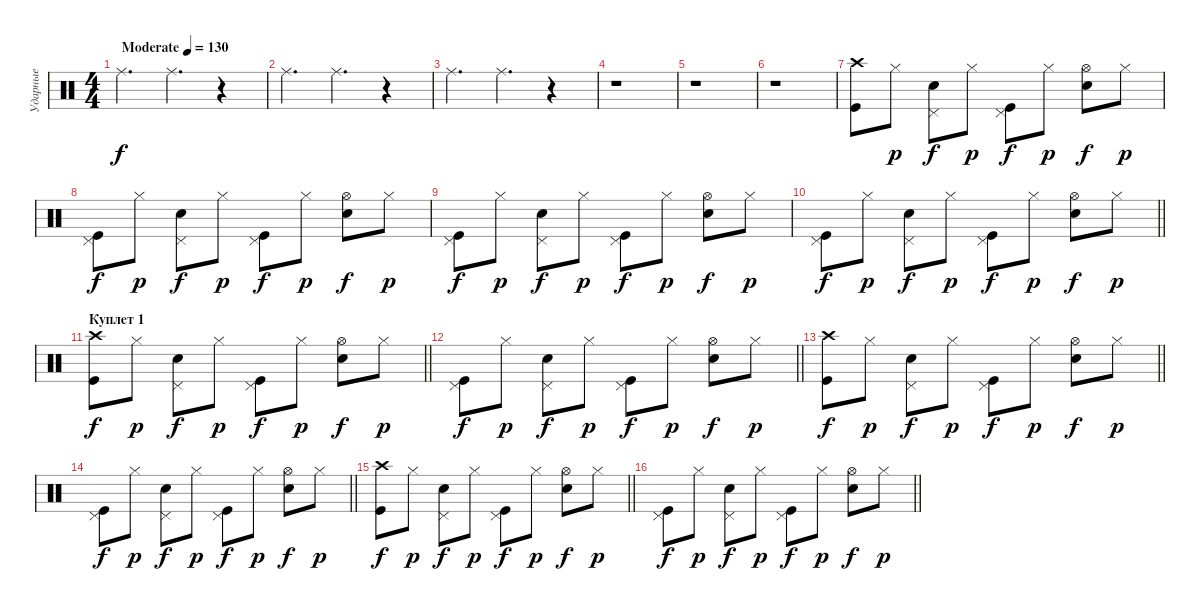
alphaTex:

\track ("Ударные" "Ударные") {instrument percussion}
\staff {score}
\articulation defaults
\ts (4 4)
\tempo (130 "Moderate")
\clef neutral
\ks c "Ride (middle)".4{d dy f} "Ride (middle)".4{d}
r.4 |
"Ride (middle)".4{d} "Ride (middle)".4{d} r.4 |
"Ride (middle)".4{d} "Ride (middle)".4{d} r.4 |
r.1 |
r.1 |
r.1 |
("Crash high (hit)" "Kick (hit)").8 "Hi-Hat (closed)".8{dy p} ("Pedal Hi-Hat (hit)" "Snare (hit) 2").8{dy f} "Hi-Hat (closed)".8{dy p} ("Pedal Hi-Hat (hit)" "Kick (hit)").8{dy f} "Hi-Hat (closed)".8{dy p} ("Hi-Hat (open)" "Snare (hit) 2").8{dy f} "Hi-Hat (closed)".8{dy p} |
("Pedal Hi-Hat (hit)" "Kick (hit)").8{dy f} "Hi-Hat (closed)".8{dy p} ("Pedal Hi-Hat (hit)" "Snare (hit) 2").8{dy f} "Hi-Hat (closed)".8{dy p} ("Pedal Hi-Hat (hit)" "Kick (hit)").8{dy f} "Hi-Hat (closed)".8{dy p} ("Hi-Hat (open)" "Snare (hit) 2").8{dy f} "Hi-Hat (closed)".8{dy p} |
("Pedal Hi-Hat (hit)" "Kick (hit)").8{dy f} "Hi-Hat (closed)".8{dy p} ("Pedal Hi-Hat (hit)" "Snare (hit) 2").8{dy f} "Hi-Hat (closed)".8{dy p} ("Pedal Hi-Hat (hit)" "Kick (hit)").8{dy f} "Hi-Hat (closed)".8{dy p} ("Hi-Hat (open)" "Snare (hit) 2").8{dy f} "Hi-Hat (closed)".8{dy p} |
\barLineRight lightlight
("Pedal Hi-Hat (hit)" "Kick (hit)").8{dy f} "Hi-Hat (closed)".8{dy p} ("Pedal Hi-Hat (hit)" "Snare (hit) 2").8{dy f} "Hi-Hat (closed)".8{dy p} ("Pedal Hi-Hat (hit)" "Kick (hit)").8{dy f} "Hi-Hat (closed)".8{dy p} ("Hi-Hat (open)" "Snare (hit) 2").8{dy f} "Hi-Hat (closed)".8{dy p} |
\section ("" "Куплет 1")
\barLineRight lightlight
("Crash high (hit)" "Kick (hit)").8{dy f} "Hi-Hat (closed)".8{dy p} ("Pedal Hi-Hat (hit)" "Snare (hit) 2").8{dy f} "Hi-Hat (closed)".8{dy p} ("Pedal Hi-Hat (hit)" "Kick (hit)").8{dy f} "Hi-Hat (closed)".8{dy p} ("Hi-Hat (open)" "Snare (hit) 2").8{dy f} "Hi-Hat (closed)".8{dy p} |
\barLineRight lightlight
("Pedal Hi-Hat (hit)" "Kick (hit)").8{dy f} "Hi-Hat (closed)".8{dy p} ("Pedal Hi-Hat (hit)" "Snare (hit) 2").8{dy f} "Hi-Hat (closed)".8{dy p} ("Pedal Hi-Hat (hit)" "Kick (hit)").8{dy f} "Hi-Hat (closed)".8{dy p} ("Hi-Hat (open)" "Snare (hit) 2").8{dy f} "Hi-Hat (closed)".8{dy p} |
\barLineRight lightlight
("Crash high (hit)" "Kick (hit)").8{dy f} "Hi-Hat (closed)".8{dy p} ("Pedal Hi-Hat (hit)" "Snare (hit) 2").8{dy f} "Hi-Hat (closed)".8{dy p} ("Pedal Hi-Hat (hit)" "Kick (hit)").8{dy f} "Hi-Hat (closed)".8{dy p} ("Hi-Hat (open)" "Snare (hit) 2").8{dy f} "Hi-Hat (closed)".8{dy p} |
\barLineRight lightlight
("Pedal Hi-Hat (hit)" "Kick (hit)").8{dy f} "Hi-Hat (closed)".8{dy p} ("Pedal Hi-Hat (hit)" "Snare (hit) 2").8{dy f} "Hi-Hat (closed)".8{dy p} ("Pedal Hi-Hat (hit)" "Kick (hit)").8{dy f} "Hi-Hat (closed)".8{dy p} ("Hi-Hat (open)" "Snare (hit) 2").8{dy f} "Hi-Hat (closed)".8{dy p} |
\barLineRight lightlight
("Crash high (hit)" "Kick (hit)").8{dy f} "Hi-Hat (closed)".8{dy p} ("Pedal Hi-Hat (hit)" "Snare (hit) 2").8{dy f} "Hi-Hat (closed)".8{dy p} ("Pedal Hi-Hat (hit)" "Kick (hit)").8{dy f} "Hi-Hat (closed)".8{dy p} ("Hi-Hat (open)" "Snare (hit) 2").8{dy f} "Hi-Hat (closed)".8{dy p} |
\barLineRight lightlight
("Pedal Hi-Hat (hit)" "Kick (hit)").8{dy f} "Hi-Hat (closed)".8{dy p} ("Pedal Hi-Hat (hit)" "Snare (hit) 2").8{dy f} "Hi-Hat (closed)".8{dy p} ("Pedal Hi-Hat (hit)" "Kick (hit)").8{dy f} "Hi-Hat (closed)".8{dy p} ("Hi-Hat (open)" "Snare (hit) 2").8{dy f} "Hi-Hat (closed)".8{dy p}
